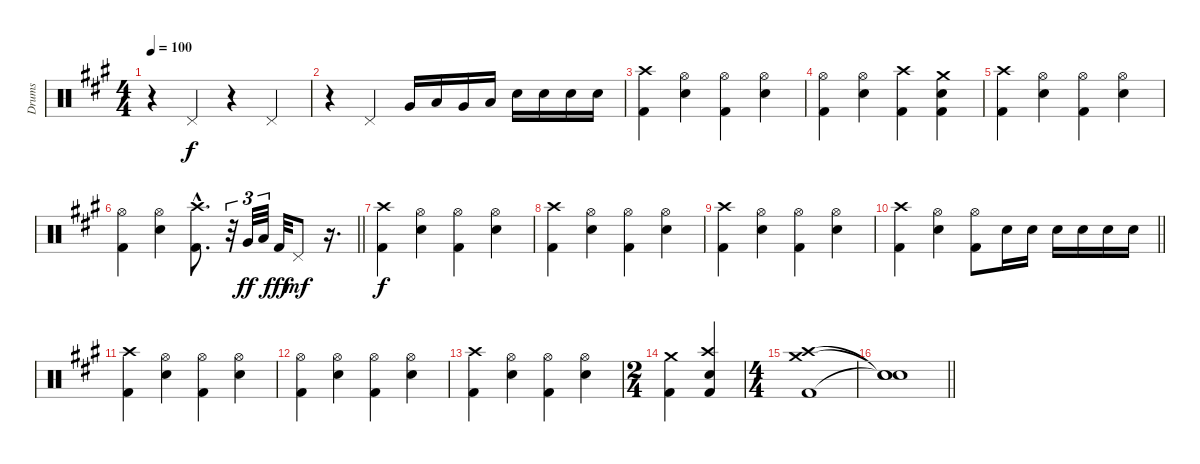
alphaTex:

\track ("Drums" "Drums") {instrument percussion}
\staff {score}
\articulation defaults
\ts (4 4)
\tempo 100
\clef neutral
\ks f#minor
r.4{dy f} "Pedal Hi-Hat (hit)".4 r.4 "Pedal Hi-Hat (hit)".4 |
r.4 "Pedal Hi-Hat (hit)".4 "Very Low Tom (hit)".16 "Low Tom (hit)".16 "Very Low Tom (hit)".16 "Low Tom (hit)".16 "Snare (hit) 2".16 "Snare (hit) 2".16 "Snare (hit) 2".16 "Snare (hit) 2".16 |
("Crash high (hit)" "Kick (hit) 2").4 ("Hi-Hat (open)" "Snare (hit) 2").4 ("Hi-Hat (open)" "Kick (hit) 2").4 ("Hi-Hat (open)" "Snare (hit) 2").4 |
("Hi-Hat (open)" "Kick (hit) 2").4 ("Hi-Hat (open)" "Snare (hit) 2").4 ("Crash high (hit)" "Kick (hit) 2").4 ("Crash medium (hit)" "Snare (hit) 2" "Kick (hit) 2").4 |
("Crash high (hit)" "Kick (hit) 2").4 ("Hi-Hat (open)" "Snare (hit) 2").4 ("Hi-Hat (open)" "Kick (hit) 2").4 ("Hi-Hat (open)" "Snare (hit) 2").4 |
\barLineRight lightlight
("Hi-Hat (open)" "Kick (hit) 2").4 ("Hi-Hat (open)" "Snare (hit) 2").4 ("Crash high (hit)"{hac} "Kick (hit) 2"{hac}).8{d} r.32{tu (3 2)} "Very Low Tom (hit)".32{tu (3 2) dy ff} "Low Tom (hit)".32{tu (3 2)} "Kick (hit) 2".32{dy fff} "Pedal Hi-Hat (hit)".8{dy mf} r.16{d} |
("Crash high (hit)" "Kick (hit) 2").4{dy f} ("Hi-Hat (open)" "Snare (hit) 2").4 ("Hi-Hat (open)" "Kick (hit) 2").4 ("Hi-Hat (open)" "Snare (hit) 2").4 |
("Crash high (hit)" "Kick (hit) 2").4 ("Hi-Hat (open)" "Snare (hit) 2").4 ("Hi-Hat (open)" "Kick (hit) 2").4 ("Hi-Hat (open)" "Snare (hit) 2").4 |
("Crash high (hit)" "Kick (hit) 2").4 ("Hi-Hat (open)" "Snare (hit) 2").4 ("Hi-Hat (open)" "Kick (hit) 2").4 ("Hi-Hat (open)" "Snare (hit) 2").4 |
\barLineRight lightlight
("Crash high (hit)" "Kick (hit) 2").4 ("Hi-Hat (open)" "Snare (hit) 2").4 ("Hi-Hat (open)" "Kick (hit) 2").8 "Snare (hit) 2".16 "Snare (hit) 2".16 "Snare (hit) 2".16 "Snare (hit) 2".16 "Snare (hit) 2".16 "Snare (hit) 2".16 |
("Crash high (hit)" "Kick (hit) 2").4 ("Hi-Hat (open)" "Snare (hit) 2").4 ("Hi-Hat (open)" "Kick (hit) 2").4 ("Hi-Hat (open)" "Snare (hit) 2").4 |
("Hi-Hat (open)" "Kick (hit) 2").4 ("Hi-Hat (open)" "Snare (hit) 2").4 ("Hi-Hat (open)" "Kick (hit) 2").4 ("Hi-Hat (open)" "Snare (hit) 2").4 |
("Crash high (hit)" "Kick (hit) 2").4 ("Hi-Hat (open)" "Snare (hit) 2").4 ("Hi-Hat (open)" "Kick (hit) 2").4 ("Hi-Hat (open)" "Snare (hit) 2").4 |
\ts (2 4)
("Crash medium (hit)" "Kick (hit) 2").4 ("Crash high (hit)" "Snare (hit) 2" "Kick (hit) 2").4 |
\ts (4 4)
("Crash high (hit)" "Crash medium (hit)" "Kick (hit) 2").1 |
\barLineRight lightlight
("Snare (hit)"{t} "Snare (hit)"{t} "Snare (hit)"{t}).1
